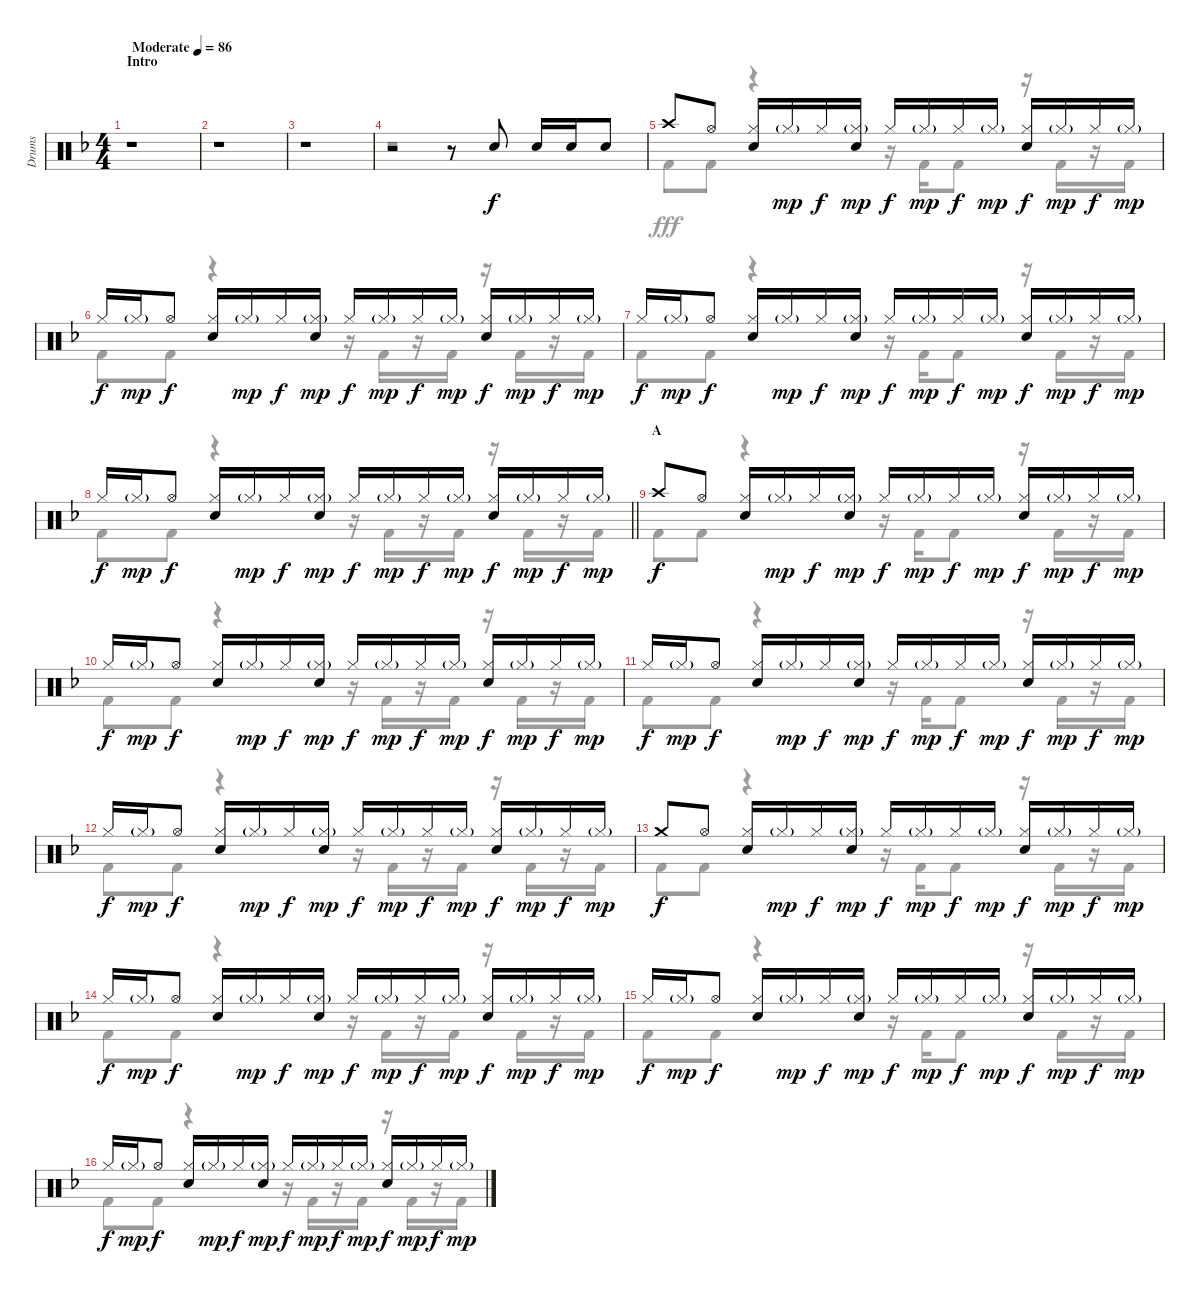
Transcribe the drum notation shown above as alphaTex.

\track ("Drums" "Drums") {instrument percussion}
\staff {score}
\articulation defaults
\voice
\ts (4 4)
\section ("" "Intro")
\tempo (86 "Moderate")
\clef neutral
\ks f
r.1{dy f} |
r.1 |
r.1 |
r.2 r.8 "Snare (hit) 2".8 "Snare (hit) 2".16 "Snare (hit) 2".16 "Snare (hit) 2".8 |
"Crash high (hit)".8 "Hi-Hat (open)".8 ("Hi-Hat (closed)" "Snare (hit) 2").16 "Hi-Hat (closed)"{g}.16{dy mp} "Hi-Hat (closed)".16{dy f} ("Hi-Hat (closed)"{g} "Snare (hit) 2").16{dy mp} "Hi-Hat (closed)".16{dy f} "Hi-Hat (closed)"{g}.16{dy mp} "Hi-Hat (closed)".16{dy f} "Hi-Hat (closed)"{g}.16{dy mp} ("Hi-Hat (closed)" "Snare (hit) 2").16{dy f} "Hi-Hat (closed)"{g}.16{dy mp} "Hi-Hat (closed)".16{dy f} "Hi-Hat (closed)"{g}.16{dy mp} |
"Hi-Hat (closed)".16{dy f} "Hi-Hat (closed)"{g}.16{dy mp} "Hi-Hat (open)".8{dy f} ("Hi-Hat (closed)" "Snare (hit) 2").16 "Hi-Hat (closed)"{g}.16{dy mp} "Hi-Hat (closed)".16{dy f} ("Hi-Hat (closed)"{g} "Snare (hit) 2").16{dy mp} "Hi-Hat (closed)".16{dy f} "Hi-Hat (closed)"{g}.16{dy mp} "Hi-Hat (closed)".16{dy f} "Hi-Hat (closed)"{g}.16{dy mp} ("Hi-Hat (closed)" "Snare (hit) 2").16{dy f} "Hi-Hat (closed)"{g}.16{dy mp} "Hi-Hat (closed)".16{dy f} "Hi-Hat (closed)"{g}.16{dy mp} |
"Hi-Hat (closed)".16{dy f} "Hi-Hat (closed)"{g}.16{dy mp} "Hi-Hat (open)".8{dy f} ("Hi-Hat (closed)" "Snare (hit) 2").16 "Hi-Hat (closed)"{g}.16{dy mp} "Hi-Hat (closed)".16{dy f} ("Hi-Hat (closed)"{g} "Snare (hit) 2").16{dy mp} "Hi-Hat (closed)".16{dy f} "Hi-Hat (closed)"{g}.16{dy mp} "Hi-Hat (closed)".16{dy f} "Hi-Hat (closed)"{g}.16{dy mp} ("Hi-Hat (closed)" "Snare (hit) 2").16{dy f} "Hi-Hat (closed)"{g}.16{dy mp} "Hi-Hat (closed)".16{dy f} "Hi-Hat (closed)"{g}.16{dy mp} |
\barLineRight lightlight "Hi-Hat (closed)".16{dy f} "Hi-Hat (closed)"{g}.16{dy mp} "Hi-Hat (open)".8{dy f}
("Hi-Hat (closed)" "Snare (hit) 2").16 "Hi-Hat (closed)"{g}.16{dy mp} "Hi-Hat (closed)".16{dy f} ("Hi-Hat (closed)"{g} "Snare (hit) 2").16{dy mp} "Hi-Hat (closed)".16{dy f} "Hi-Hat (closed)"{g}.16{dy mp} "Hi-Hat (closed)".16{dy f} "Hi-Hat (closed)"{g}.16{dy mp} ("Hi-Hat (closed)" "Snare (hit) 2").16{dy f} "Hi-Hat (closed)"{g}.16{dy mp} "Hi-Hat (closed)".16{dy f} "Hi-Hat (closed)"{g}.16{dy mp} |
\section ("" "A")
"Crash high (hit)".8{dy f} "Hi-Hat (open)".8 ("Hi-Hat (closed)" "Snare (hit) 2").16 "Hi-Hat (closed)"{g}.16{dy mp} "Hi-Hat (closed)".16{dy f} ("Hi-Hat (closed)"{g} "Snare (hit) 2").16{dy mp} "Hi-Hat (closed)".16{dy f} "Hi-Hat (closed)"{g}.16{dy mp} "Hi-Hat (closed)".16{dy f} "Hi-Hat (closed)"{g}.16{dy mp} ("Hi-Hat (closed)" "Snare (hit) 2").16{dy f} "Hi-Hat (closed)"{g}.16{dy mp} "Hi-Hat (closed)".16{dy f} "Hi-Hat (closed)"{g}.16{dy mp} |
"Hi-Hat (closed)".16{dy f} "Hi-Hat (closed)"{g}.16{dy mp} "Hi-Hat (open)".8{dy f} ("Hi-Hat (closed)" "Snare (hit) 2").16 "Hi-Hat (closed)"{g}.16{dy mp} "Hi-Hat (closed)".16{dy f} ("Hi-Hat (closed)"{g} "Snare (hit) 2").16{dy mp} "Hi-Hat (closed)".16{dy f} "Hi-Hat (closed)"{g}.16{dy mp} "Hi-Hat (closed)".16{dy f} "Hi-Hat (closed)"{g}.16{dy mp} ("Hi-Hat (closed)" "Snare (hit) 2").16{dy f} "Hi-Hat (closed)"{g}.16{dy mp} "Hi-Hat (closed)".16{dy f} "Hi-Hat (closed)"{g}.16{dy mp} |
"Hi-Hat (closed)".16{dy f} "Hi-Hat (closed)"{g}.16{dy mp} "Hi-Hat (open)".8{dy f} ("Hi-Hat (closed)" "Snare (hit) 2").16 "Hi-Hat (closed)"{g}.16{dy mp} "Hi-Hat (closed)".16{dy f} ("Hi-Hat (closed)"{g} "Snare (hit) 2").16{dy mp} "Hi-Hat (closed)".16{dy f} "Hi-Hat (closed)"{g}.16{dy mp} "Hi-Hat (closed)".16{dy f} "Hi-Hat (closed)"{g}.16{dy mp} ("Hi-Hat (closed)" "Snare (hit) 2").16{dy f} "Hi-Hat (closed)"{g}.16{dy mp} "Hi-Hat (closed)".16{dy f} "Hi-Hat (closed)"{g}.16{dy mp} |
"Hi-Hat (closed)".16{dy f} "Hi-Hat (closed)"{g}.16{dy mp} "Hi-Hat (open)".8{dy f} ("Hi-Hat (closed)" "Snare (hit) 2").16 "Hi-Hat (closed)"{g}.16{dy mp} "Hi-Hat (closed)".16{dy f} ("Hi-Hat (closed)"{g} "Snare (hit) 2").16{dy mp} "Hi-Hat (closed)".16{dy f} "Hi-Hat (closed)"{g}.16{dy mp} "Hi-Hat (closed)".16{dy f} "Hi-Hat (closed)"{g}.16{dy mp} ("Hi-Hat (closed)" "Snare (hit) 2").16{dy f} "Hi-Hat (closed)"{g}.16{dy mp} "Hi-Hat (closed)".16{dy f} "Hi-Hat (closed)"{g}.16{dy mp} |
"Crash medium (hit)".8{dy f} "Hi-Hat (open)".8 ("Hi-Hat (closed)" "Snare (hit) 2").16 "Hi-Hat (closed)"{g}.16{dy mp} "Hi-Hat (closed)".16{dy f} ("Hi-Hat (closed)"{g} "Snare (hit) 2").16{dy mp} "Hi-Hat (closed)".16{dy f} "Hi-Hat (closed)"{g}.16{dy mp} "Hi-Hat (closed)".16{dy f} "Hi-Hat (closed)"{g}.16{dy mp} ("Hi-Hat (closed)" "Snare (hit) 2").16{dy f} "Hi-Hat (closed)"{g}.16{dy mp} "Hi-Hat (closed)".16{dy f} "Hi-Hat (closed)"{g}.16{dy mp} |
"Hi-Hat (closed)".16{dy f} "Hi-Hat (closed)"{g}.16{dy mp} "Hi-Hat (open)".8{dy f} ("Hi-Hat (closed)" "Snare (hit) 2").16 "Hi-Hat (closed)"{g}.16{dy mp} "Hi-Hat (closed)".16{dy f} ("Hi-Hat (closed)"{g} "Snare (hit) 2").16{dy mp} "Hi-Hat (closed)".16{dy f} "Hi-Hat (closed)"{g}.16{dy mp} "Hi-Hat (closed)".16{dy f} "Hi-Hat (closed)"{g}.16{dy mp} ("Hi-Hat (closed)" "Snare (hit) 2").16{dy f} "Hi-Hat (closed)"{g}.16{dy mp} "Hi-Hat (closed)".16{dy f} "Hi-Hat (closed)"{g}.16{dy mp} |
"Hi-Hat (closed)".16{dy f} "Hi-Hat (closed)"{g}.16{dy mp} "Hi-Hat (open)".8{dy f} ("Hi-Hat (closed)" "Snare (hit) 2").16 "Hi-Hat (closed)"{g}.16{dy mp} "Hi-Hat (closed)".16{dy f} ("Hi-Hat (closed)"{g} "Snare (hit) 2").16{dy mp} "Hi-Hat (closed)".16{dy f} "Hi-Hat (closed)"{g}.16{dy mp} "Hi-Hat (closed)".16{dy f} "Hi-Hat (closed)"{g}.16{dy mp} ("Hi-Hat (closed)" "Snare (hit) 2").16{dy f} "Hi-Hat (closed)"{g}.16{dy mp} "Hi-Hat (closed)".16{dy f} "Hi-Hat (closed)"{g}.16{dy mp} |
"Hi-Hat (closed)".16{dy f} "Hi-Hat (closed)"{g}.16{dy mp} "Hi-Hat (open)".8{dy f} ("Hi-Hat (closed)" "Snare (hit) 2").16 "Hi-Hat (closed)"{g}.16{dy mp} "Hi-Hat (closed)".16{dy f} ("Hi-Hat (closed)"{g} "Snare (hit) 2").16{dy mp} "Hi-Hat (closed)".16{dy f} "Hi-Hat (closed)"{g}.16{dy mp} "Hi-Hat (closed)".16{dy f} "Hi-Hat (closed)"{g}.16{dy mp} ("Hi-Hat (closed)" "Snare (hit) 2").16{dy f} "Hi-Hat (closed)"{g}.16{dy mp} "Hi-Hat (closed)".16{dy f} "Hi-Hat (closed)"{g}.16{dy mp}
\voice
\clef neutral
\ottava regular
\simile none
\ks f
r.1{dy fff} |
r.1 |
r.1 |
r.1 |
"Kick (hit) 2".8 "Kick (hit) 2".8 r.4 r.16 "Kick (hit) 2".16 "Kick (hit) 2".8 r.16 "Kick (hit) 2".16 r.16 "Kick (hit) 2".16 |
"Kick (hit) 2".8 "Kick (hit) 2".8 r.4 r.16 "Kick (hit) 2".16 r.16 "Kick (hit) 2".16 r.16 "Kick (hit) 2".16 r.16 "Kick (hit) 2".16 |
"Kick (hit) 2".8 "Kick (hit) 2".8 r.4 r.16 "Kick (hit) 2".16 "Kick (hit) 2".8 r.16 "Kick (hit) 2".16 r.16 "Kick (hit) 2".16 |
\barLineRight lightlight "Kick (hit) 2".8 "Kick (hit) 2".8
r.4 r.16 "Kick (hit) 2".16 r.16 "Kick (hit) 2".16 r.16 "Kick (hit) 2".16 r.16 "Kick (hit) 2".16 |
"Kick (hit) 2".8 "Kick (hit) 2".8 r.4 r.16 "Kick (hit) 2".16 "Kick (hit) 2".8 r.16 "Kick (hit) 2".16 r.16 "Kick (hit) 2".16 |
"Kick (hit) 2".8 "Kick (hit) 2".8 r.4 r.16 "Kick (hit) 2".16 r.16 "Kick (hit) 2".16 r.16 "Kick (hit) 2".16 r.16 "Kick (hit) 2".16 |
"Kick (hit) 2".8 "Kick (hit) 2".8 r.4 r.16 "Kick (hit) 2".16 "Kick (hit) 2".8 r.16 "Kick (hit) 2".16 r.16 "Kick (hit) 2".16 |
"Kick (hit) 2".8 "Kick (hit) 2".8 r.4 r.16 "Kick (hit) 2".16 r.16 "Kick (hit) 2".16 r.16 "Kick (hit) 2".16 r.16 "Kick (hit) 2".16 |
"Kick (hit) 2".8 "Kick (hit) 2".8 r.4 r.16 "Kick (hit) 2".16 "Kick (hit) 2".8 r.16 "Kick (hit) 2".16 r.16 "Kick (hit) 2".16 |
"Kick (hit) 2".8 "Kick (hit) 2".8 r.4 r.16 "Kick (hit) 2".16 r.16 "Kick (hit) 2".16 r.16 "Kick (hit) 2".16 r.16 "Kick (hit) 2".16 |
"Kick (hit) 2".8 "Kick (hit) 2".8 r.4 r.16 "Kick (hit) 2".16 "Kick (hit) 2".8 r.16 "Kick (hit) 2".16 r.16 "Kick (hit) 2".16 |
"Kick (hit) 2".8 "Kick (hit) 2".8 r.4 r.16 "Kick (hit) 2".16 r.16 "Kick (hit) 2".16 r.16 "Kick (hit) 2".16 r.16 "Kick (hit) 2".16
